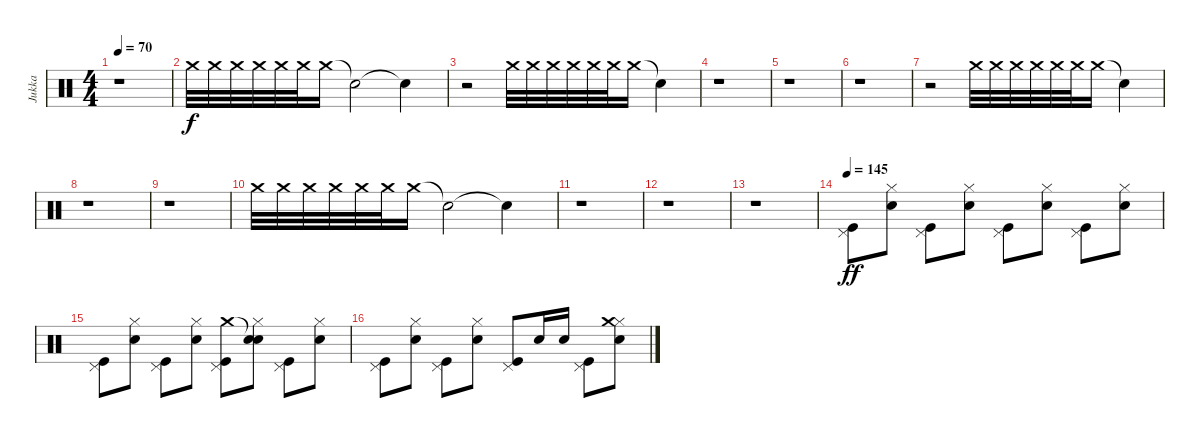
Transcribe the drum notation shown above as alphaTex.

\track ("Jukka" "Jukka") {instrument percussion}
\staff {score}
\articulation defaults
\ts (4 4)
\tempo 70
\clef neutral
\ks c
r.1{dy f} |
"Crash medium (hit)".32{volume 4} "Crash medium (hit)".32{volume 6} "Crash medium (hit)".32{volume 8} "Crash medium (hit)".32{volume 10} "Crash medium (hit)".32{volume 12} "Crash medium (hit)".32{volume 14} "Crash medium (hit)".16{volume 16} "Snare (hit)"{t}.2 "Snare (hit)"{t}.4 |
r.2 "Crash medium (hit)".32{volume 4} "Crash medium (hit)".32{volume 6} "Crash medium (hit)".32{volume 8} "Crash medium (hit)".32{volume 10} "Crash medium (hit)".32{volume 12} "Crash medium (hit)".32{volume 14} "Crash medium (hit)".16{volume 16} "Snare (hit)"{t}.4 |
r.1 |
r.1 |
r.1 |
r.2 "Crash medium (hit)".32{volume 4} "Crash medium (hit)".32{volume 6} "Crash medium (hit)".32{volume 8} "Crash medium (hit)".32{volume 10} "Crash medium (hit)".32{volume 12} "Crash medium (hit)".32{volume 14} "Crash medium (hit)".16{volume 16} "Snare (hit)"{t}.4 |
r.1 |
r.1 |
"Crash medium (hit)".32{volume 4} "Crash medium (hit)".32{volume 6} "Crash medium (hit)".32{volume 8} "Crash medium (hit)".32{volume 10} "Crash medium (hit)".32{volume 12} "Crash medium (hit)".32{volume 14} "Crash medium (hit)".16{volume 16} "Snare (hit)"{t}.2 "Snare (hit)"{t}.4 |
r.1 |
r.1 |
r.1 |
\tempo 145
("Kick (hit)" "Pedal Hi-Hat (hit)").8{dy ff volume 13} ("Electric Snare (hit)" "Hi-Hat (closed)").8 ("Kick (hit)" "Pedal Hi-Hat (hit)").8 ("Electric Snare (hit)" "Hi-Hat (closed)").8 ("Kick (hit)" "Pedal Hi-Hat (hit)").8 ("Electric Snare (hit)" "Hi-Hat (closed)").8 ("Kick (hit)" "Pedal Hi-Hat (hit)").8 ("Electric Snare (hit)" "Hi-Hat (closed)").8 |
("Kick (hit)" "Pedal Hi-Hat (hit)").8 ("Electric Snare (hit)" "Hi-Hat (closed)").8 ("Kick (hit)" "Pedal Hi-Hat (hit)").8 ("Electric Snare (hit)" "Hi-Hat (closed)").8 ("Kick (hit)" "Pedal Hi-Hat (hit)" "Crash medium (hit)").8 ("Electric Snare (hit)" "Hi-Hat (closed)" "Snare (hit)"{t}).8 ("Kick (hit)" "Pedal Hi-Hat (hit)").8 ("Electric Snare (hit)" "Hi-Hat (closed)").8 |
("Kick (hit)" "Pedal Hi-Hat (hit)").8 ("Electric Snare (hit)" "Hi-Hat (closed)").8 ("Kick (hit)" "Pedal Hi-Hat (hit)").8 ("Electric Snare (hit)" "Hi-Hat (closed)").8 ("Kick (hit)" "Pedal Hi-Hat (hit)").8 "Electric Snare (hit)".16 "Electric Snare (hit)".16 ("Kick (hit)" "Pedal Hi-Hat (hit)").8 ("Electric Snare (hit)" "Hi-Hat (closed)" "Crash medium (hit)").8
